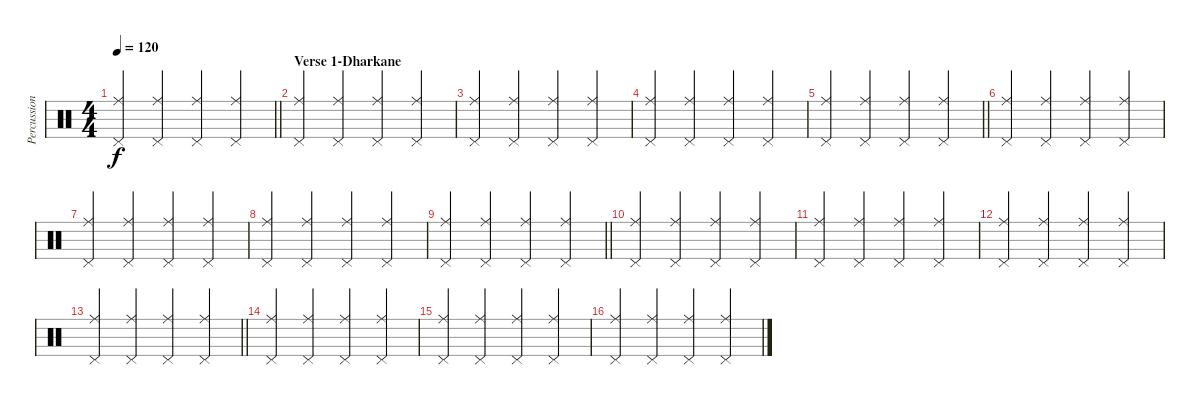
\track ("Percussion" "Percussion") {instrument percussion}
\staff {score}
\articulation defaults
\ts (4 4)
\tempo 120
\clef neutral
\barLineRight lightlight
\ks c
("Ride (middle)" "Pedal Hi-Hat (hit)").4{dy f} ("Ride (middle)" "Pedal Hi-Hat (hit)").4 ("Ride (middle)" "Pedal Hi-Hat (hit)").4 ("Ride (middle)" "Pedal Hi-Hat (hit)").4 |
\section ("" "Verse 1-Dharkane")
("Ride (middle)" "Pedal Hi-Hat (hit)").4 ("Ride (middle)" "Pedal Hi-Hat (hit)").4 ("Ride (middle)" "Pedal Hi-Hat (hit)").4 ("Ride (middle)" "Pedal Hi-Hat (hit)").4 |
("Ride (middle)" "Pedal Hi-Hat (hit)").4 ("Ride (middle)" "Pedal Hi-Hat (hit)").4 ("Ride (middle)" "Pedal Hi-Hat (hit)").4 ("Ride (middle)" "Pedal Hi-Hat (hit)").4 |
("Ride (middle)" "Pedal Hi-Hat (hit)").4 ("Ride (middle)" "Pedal Hi-Hat (hit)").4 ("Ride (middle)" "Pedal Hi-Hat (hit)").4 ("Ride (middle)" "Pedal Hi-Hat (hit)").4 |
\barLineRight lightlight
("Ride (middle)" "Pedal Hi-Hat (hit)").4 ("Ride (middle)" "Pedal Hi-Hat (hit)").4 ("Ride (middle)" "Pedal Hi-Hat (hit)").4 ("Ride (middle)" "Pedal Hi-Hat (hit)").4 |
("Ride (middle)" "Pedal Hi-Hat (hit)").4 ("Ride (middle)" "Pedal Hi-Hat (hit)").4 ("Ride (middle)" "Pedal Hi-Hat (hit)").4 ("Ride (middle)" "Pedal Hi-Hat (hit)").4 |
("Ride (middle)" "Pedal Hi-Hat (hit)").4 ("Ride (middle)" "Pedal Hi-Hat (hit)").4 ("Ride (middle)" "Pedal Hi-Hat (hit)").4 ("Ride (middle)" "Pedal Hi-Hat (hit)").4 |
("Ride (middle)" "Pedal Hi-Hat (hit)").4 ("Ride (middle)" "Pedal Hi-Hat (hit)").4 ("Ride (middle)" "Pedal Hi-Hat (hit)").4 ("Ride (middle)" "Pedal Hi-Hat (hit)").4 |
\barLineRight lightlight
("Ride (middle)" "Pedal Hi-Hat (hit)").4 ("Ride (middle)" "Pedal Hi-Hat (hit)").4 ("Ride (middle)" "Pedal Hi-Hat (hit)").4 ("Ride (middle)" "Pedal Hi-Hat (hit)").4 |
("Ride (middle)" "Pedal Hi-Hat (hit)").4 ("Ride (middle)" "Pedal Hi-Hat (hit)").4 ("Ride (middle)" "Pedal Hi-Hat (hit)").4 ("Ride (middle)" "Pedal Hi-Hat (hit)").4 |
("Ride (middle)" "Pedal Hi-Hat (hit)").4 ("Ride (middle)" "Pedal Hi-Hat (hit)").4 ("Ride (middle)" "Pedal Hi-Hat (hit)").4 ("Ride (middle)" "Pedal Hi-Hat (hit)").4 |
("Ride (middle)" "Pedal Hi-Hat (hit)").4 ("Ride (middle)" "Pedal Hi-Hat (hit)").4 ("Ride (middle)" "Pedal Hi-Hat (hit)").4 ("Ride (middle)" "Pedal Hi-Hat (hit)").4 |
\barLineRight lightlight
("Ride (middle)" "Pedal Hi-Hat (hit)").4 ("Ride (middle)" "Pedal Hi-Hat (hit)").4 ("Ride (middle)" "Pedal Hi-Hat (hit)").4 ("Ride (middle)" "Pedal Hi-Hat (hit)").4 |
("Ride (middle)" "Pedal Hi-Hat (hit)").4 ("Ride (middle)" "Pedal Hi-Hat (hit)").4 ("Ride (middle)" "Pedal Hi-Hat (hit)").4 ("Ride (middle)" "Pedal Hi-Hat (hit)").4 |
("Ride (middle)" "Pedal Hi-Hat (hit)").4 ("Ride (middle)" "Pedal Hi-Hat (hit)").4 ("Ride (middle)" "Pedal Hi-Hat (hit)").4 ("Ride (middle)" "Pedal Hi-Hat (hit)").4 |
("Ride (middle)" "Pedal Hi-Hat (hit)").4 ("Ride (middle)" "Pedal Hi-Hat (hit)").4 ("Ride (middle)" "Pedal Hi-Hat (hit)").4 ("Ride (middle)" "Pedal Hi-Hat (hit)").4
